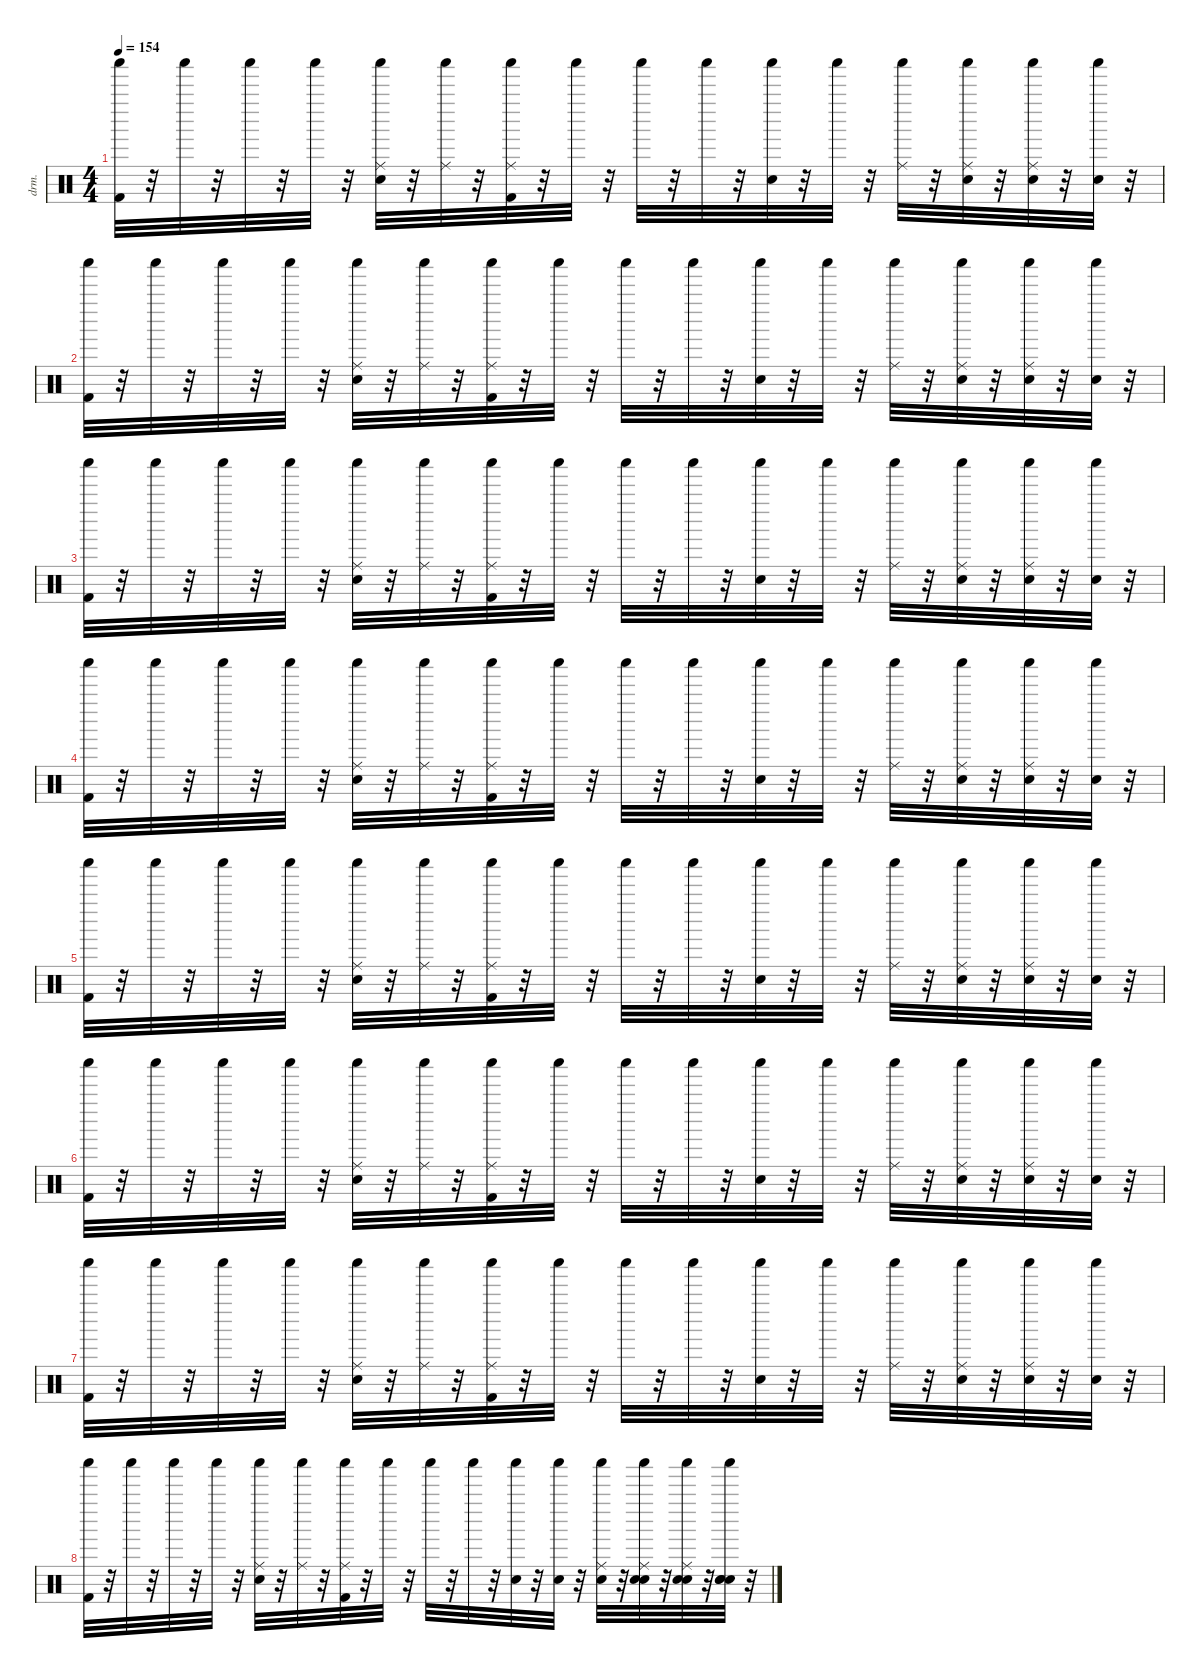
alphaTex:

\defaultSystemsLayout 4
\hideDynamics
\bracketExtendMode nobrackets
\otherSystemsTrackNameOrientation horizontal
\track ("Percussion" "drm.") {instrument percussion}
\staff {score}
\articulation defaults
\ts (4 4)
\tempo 154
\clef neutral
\ks c
("Shaker (hit)" "Kick (hit) 2").32{dy f beam Down} r.32{beam Down} "Shaker (hit)".32{beam Down} r.32{beam Down} "Shaker (hit)".32{beam Down} r.32{beam Down} "Shaker (hit)".32{beam Down} r.32{beam Down} ("Shaker (hit)" "Snare (hit) 2" "Ride (middle)").32{beam Down} r.32{beam Down} ("Shaker (hit)" "Ride (middle)").32{beam Down} r.32{beam Down} ("Shaker (hit)" "Kick (hit) 2" "Ride (middle)").32{beam Down} r.32{beam Down} "Shaker (hit)".32{beam Down} r.32{beam Down} "Shaker (hit)".32{beam Down} r.32{beam Down} "Shaker (hit)".32{beam Down} r.32{beam Down} ("Shaker (hit)" "Snare (hit) 2").32{beam Down} r.32{beam Down} "Shaker (hit)".32{beam Down} r.32{beam Down} ("Shaker (hit)" "Ride (middle)").32{beam Down} r.32{beam Down} ("Shaker (hit)" "Snare (hit) 2" "Ride (middle)").32{beam Down} r.32{beam Down} ("Shaker (hit)" "Snare (hit) 2" "Ride (middle)").32{beam Down} r.32{beam Down} ("Shaker (hit)" "Snare (hit) 2").32{beam Down} r.32{beam Down} |
("Shaker (hit)" "Kick (hit) 2").32{beam Down} r.32{beam Down} "Shaker (hit)".32{beam Down} r.32{beam Down} "Shaker (hit)".32{beam Down} r.32{beam Down} "Shaker (hit)".32{beam Down} r.32{beam Down} ("Shaker (hit)" "Snare (hit) 2" "Ride (middle)").32{beam Down} r.32{beam Down} ("Shaker (hit)" "Ride (middle)").32{beam Down} r.32{beam Down} ("Shaker (hit)" "Kick (hit) 2" "Ride (middle)").32{beam Down} r.32{beam Down} "Shaker (hit)".32{beam Down} r.32{beam Down} "Shaker (hit)".32{beam Down} r.32{beam Down} "Shaker (hit)".32{beam Down} r.32{beam Down} ("Shaker (hit)" "Snare (hit) 2").32{beam Down} r.32{beam Down} "Shaker (hit)".32{beam Down} r.32{beam Down} ("Shaker (hit)" "Ride (middle)").32{beam Down} r.32{beam Down} ("Shaker (hit)" "Snare (hit) 2" "Ride (middle)").32{beam Down} r.32{beam Down} ("Shaker (hit)" "Snare (hit) 2" "Ride (middle)").32{beam Down} r.32{beam Down} ("Shaker (hit)" "Snare (hit) 2").32{beam Down} r.32{beam Down} |
("Shaker (hit)" "Kick (hit) 2").32{beam Down} r.32{beam Down} "Shaker (hit)".32{beam Down} r.32{beam Down} "Shaker (hit)".32{beam Down} r.32{beam Down} "Shaker (hit)".32{beam Down} r.32{beam Down} ("Shaker (hit)" "Snare (hit) 2" "Ride (middle)").32{beam Down} r.32{beam Down} ("Shaker (hit)" "Ride (middle)").32{beam Down} r.32{beam Down} ("Shaker (hit)" "Kick (hit) 2" "Ride (middle)").32{beam Down} r.32{beam Down} "Shaker (hit)".32{beam Down} r.32{beam Down} "Shaker (hit)".32{beam Down} r.32{beam Down} "Shaker (hit)".32{beam Down} r.32{beam Down} ("Shaker (hit)" "Snare (hit) 2").32{beam Down} r.32{beam Down} "Shaker (hit)".32{beam Down} r.32{beam Down} ("Shaker (hit)" "Ride (middle)").32{beam Down} r.32{beam Down} ("Shaker (hit)" "Snare (hit) 2" "Ride (middle)").32{beam Down} r.32{beam Down} ("Shaker (hit)" "Snare (hit) 2" "Ride (middle)").32{beam Down} r.32{beam Down} ("Shaker (hit)" "Snare (hit) 2").32{beam Down} r.32{beam Down} |
("Shaker (hit)" "Kick (hit) 2").32{beam Down} r.32{beam Down} "Shaker (hit)".32{beam Down} r.32{beam Down} "Shaker (hit)".32{beam Down} r.32{beam Down} "Shaker (hit)".32{beam Down} r.32{beam Down} ("Shaker (hit)" "Snare (hit) 2" "Ride (middle)").32{beam Down} r.32{beam Down} ("Shaker (hit)" "Ride (middle)").32{beam Down} r.32{beam Down} ("Shaker (hit)" "Kick (hit) 2" "Ride (middle)").32{beam Down} r.32{beam Down} "Shaker (hit)".32{beam Down} r.32{beam Down} "Shaker (hit)".32{beam Down} r.32{beam Down} "Shaker (hit)".32{beam Down} r.32{beam Down} ("Shaker (hit)" "Snare (hit) 2").32{beam Down} r.32{beam Down} "Shaker (hit)".32{beam Down} r.32{beam Down} ("Shaker (hit)" "Ride (middle)").32{beam Down} r.32{beam Down} ("Shaker (hit)" "Snare (hit) 2" "Ride (middle)").32{beam Down} r.32{beam Down} ("Shaker (hit)" "Snare (hit) 2" "Ride (middle)").32{beam Down} r.32{beam Down} ("Shaker (hit)" "Snare (hit) 2").32{beam Down} r.32{beam Down} |
("Shaker (hit)" "Kick (hit) 2").32{beam Down} r.32{beam Down} "Shaker (hit)".32{beam Down} r.32{beam Down} "Shaker (hit)".32{beam Down} r.32{beam Down} "Shaker (hit)".32{beam Down} r.32{beam Down} ("Shaker (hit)" "Snare (hit) 2" "Ride (middle)").32{beam Down} r.32{beam Down} ("Shaker (hit)" "Ride (middle)").32{beam Down} r.32{beam Down} ("Shaker (hit)" "Kick (hit) 2" "Ride (middle)").32{beam Down} r.32{beam Down} "Shaker (hit)".32{beam Down} r.32{beam Down} "Shaker (hit)".32{beam Down} r.32{beam Down} "Shaker (hit)".32{beam Down} r.32{beam Down} ("Shaker (hit)" "Snare (hit) 2").32{beam Down} r.32{beam Down} "Shaker (hit)".32{beam Down} r.32{beam Down} ("Shaker (hit)" "Ride (middle)").32{beam Down} r.32{beam Down} ("Shaker (hit)" "Snare (hit) 2" "Ride (middle)").32{beam Down} r.32{beam Down} ("Shaker (hit)" "Snare (hit) 2" "Ride (middle)").32{beam Down} r.32{beam Down} ("Shaker (hit)" "Snare (hit) 2").32{beam Down} r.32{beam Down} |
("Shaker (hit)" "Kick (hit) 2").32{beam Down} r.32{beam Down} "Shaker (hit)".32{beam Down} r.32{beam Down} "Shaker (hit)".32{beam Down} r.32{beam Down} "Shaker (hit)".32{beam Down} r.32{beam Down} ("Shaker (hit)" "Snare (hit) 2" "Ride (middle)").32{beam Down} r.32{beam Down} ("Shaker (hit)" "Ride (middle)").32{beam Down} r.32{beam Down} ("Shaker (hit)" "Kick (hit) 2" "Ride (middle)").32{beam Down} r.32{beam Down} "Shaker (hit)".32{beam Down} r.32{beam Down} "Shaker (hit)".32{beam Down} r.32{beam Down} "Shaker (hit)".32{beam Down} r.32{beam Down} ("Shaker (hit)" "Snare (hit) 2").32{beam Down} r.32{beam Down} "Shaker (hit)".32{beam Down} r.32{beam Down} ("Shaker (hit)" "Ride (middle)").32{beam Down} r.32{beam Down} ("Shaker (hit)" "Snare (hit) 2" "Ride (middle)").32{beam Down} r.32{beam Down} ("Shaker (hit)" "Snare (hit) 2" "Ride (middle)").32{beam Down} r.32{beam Down} ("Shaker (hit)" "Snare (hit) 2").32{beam Down} r.32{beam Down} |
("Shaker (hit)" "Kick (hit) 2").32{beam Down} r.32{beam Down} "Shaker (hit)".32{beam Down} r.32{beam Down} "Shaker (hit)".32{beam Down} r.32{beam Down} "Shaker (hit)".32{beam Down} r.32{beam Down} ("Shaker (hit)" "Snare (hit) 2" "Ride (middle)").32{beam Down} r.32{beam Down} ("Shaker (hit)" "Ride (middle)").32{beam Down} r.32{beam Down} ("Shaker (hit)" "Kick (hit) 2" "Ride (middle)").32{beam Down} r.32{beam Down} "Shaker (hit)".32{beam Down} r.32{beam Down} "Shaker (hit)".32{beam Down} r.32{beam Down} "Shaker (hit)".32{beam Down} r.32{beam Down} ("Shaker (hit)" "Snare (hit) 2").32{beam Down} r.32{beam Down} "Shaker (hit)".32{beam Down} r.32{beam Down} ("Shaker (hit)" "Ride (middle)").32{beam Down} r.32{beam Down} ("Shaker (hit)" "Snare (hit) 2" "Ride (middle)").32{beam Down} r.32{beam Down} ("Shaker (hit)" "Snare (hit) 2" "Ride (middle)").32{beam Down} r.32{beam Down} ("Shaker (hit)" "Snare (hit) 2").32{beam Down} r.32{beam Down} |
("Shaker (hit)" "Kick (hit) 2").32{beam Down} r.32{beam Down} "Shaker (hit)".32{beam Down} r.32{beam Down} "Shaker (hit)".32{beam Down} r.32{beam Down} "Shaker (hit)".32{beam Down} r.32{beam Down} ("Shaker (hit)" "Snare (hit) 2" "Ride (middle)").32{beam Down} r.32{beam Down} ("Shaker (hit)" "Ride (middle)").32{beam Down} r.32{beam Down} ("Shaker (hit)" "Kick (hit) 2" "Ride (middle)").32{beam Down} r.32{beam Down} "Shaker (hit)".32{beam Down} r.32{beam Down} "Shaker (hit)".32{beam Down} r.32{beam Down} "Shaker (hit)".32{beam Down} r.32{beam Down} ("Shaker (hit)" "Snare (hit) 2").32{beam Down} r.32{beam Down} ("Shaker (hit)" "Snare (hit) 2").32{beam Down} r.32{beam Down} ("Shaker (hit)" "Snare (hit) 2" "Ride (middle)").32{beam Down} r.32{beam Down} ("Shaker (hit)" "Snare (hit) 2" "Ride (middle)" "Snare (hit) 2").32{beam Down} r.32{beam Down} ("Shaker (hit)" "Snare (hit) 2" "Ride (middle)" "Snare (hit) 2").32{beam Down} r.32{beam Down} ("Shaker (hit)" "Snare (hit) 2" "Snare (hit) 2" "Snare (hit) 2").32{beam Down} r.32{beam Down}
